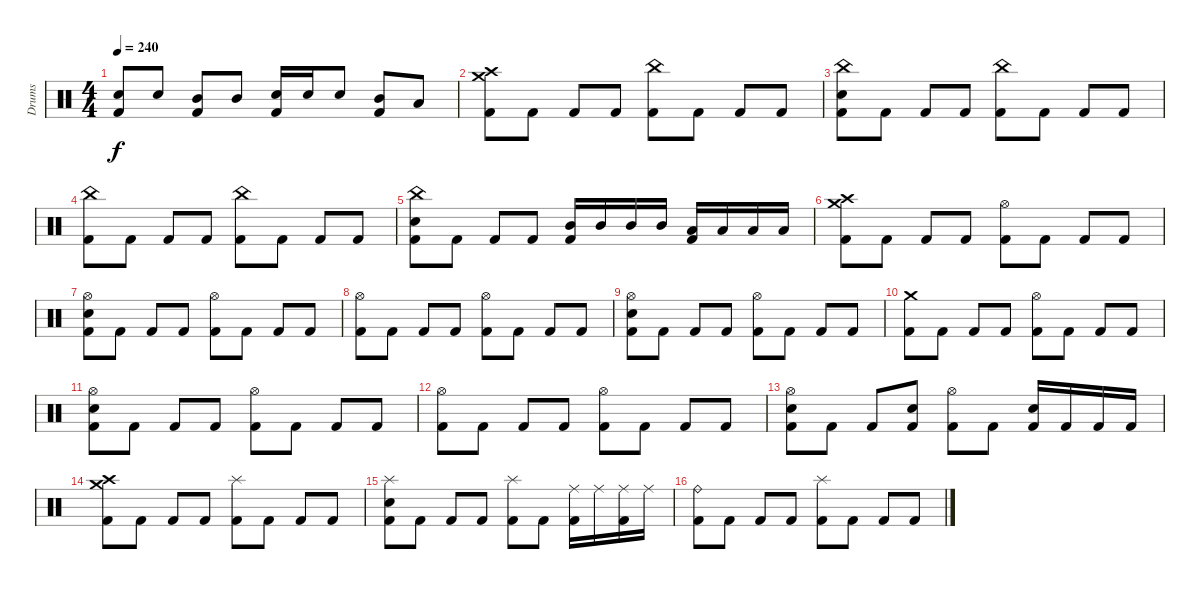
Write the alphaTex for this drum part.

\track ("Drums" "Drums") {instrument percussion}
\staff
\articulation defaults
\ts (4 4)
\tempo 240
\clef neutral
\ks c
("Electric Snare (hit)" "Kick (hit) 2").8{dy f} "Electric Snare (hit)".8 ("Mid Tom (hit)" "Kick (hit) 2").8 "Mid Tom (hit)".8 ("Electric Snare (hit)" "Kick (hit) 2").16 "Electric Snare (hit)".16 "Electric Snare (hit)".8 ("Mid Tom (hit)" "Kick (hit) 2").8 "Low Tom (hit)".8 |
("Crash medium (hit)" "Crash high (hit)" "Kick (hit) 2").8 "Kick (hit) 2".8 "Kick (hit) 2".8 "Kick (hit) 2".8 ("China (hit)" "Kick (hit) 2").8 "Kick (hit) 2".8 "Kick (hit) 2".8 "Kick (hit) 2".8 |
("China (hit)" "Electric Snare (hit)" "Kick (hit) 2").8 "Kick (hit) 2".8 "Kick (hit) 2".8 "Kick (hit) 2".8 ("China (hit)" "Kick (hit) 2").8 "Kick (hit) 2".8 "Kick (hit) 2".8 "Kick (hit) 2".8 |
("China (hit)" "Kick (hit) 2").8 "Kick (hit) 2".8 "Kick (hit) 2".8 "Kick (hit) 2".8 ("China (hit)" "Kick (hit) 2").8 "Kick (hit) 2".8 "Kick (hit) 2".8 "Kick (hit) 2".8 |
("China (hit)" "Electric Snare (hit)" "Kick (hit) 2").8 "Kick (hit) 2".8 "Kick (hit) 2".8 "Kick (hit) 2".8 ("Mid Tom (hit)" "Kick (hit) 2").16 "Mid Tom (hit)".16 "Mid Tom (hit)".16 "Mid Tom (hit)".16 ("Low Tom (hit)" "Kick (hit) 2").16 "Low Tom (hit)".16 "Low Tom (hit)".16 "Low Tom (hit)".16 |
("Crash medium (hit)" "Crash high (hit)" "Kick (hit) 2").8 "Kick (hit) 2".8 "Kick (hit) 2".8 "Kick (hit) 2".8 ("Hi-Hat (open)" "Kick (hit) 2").8 "Kick (hit) 2".8 "Kick (hit) 2".8 "Kick (hit) 2".8 |
("Hi-Hat (open)" "Electric Snare (hit)" "Kick (hit) 2").8 "Kick (hit) 2".8 "Kick (hit) 2".8 "Kick (hit) 2".8 ("Hi-Hat (open)" "Kick (hit) 2").8 "Kick (hit) 2".8 "Kick (hit) 2".8 "Kick (hit) 2".8 |
("Hi-Hat (open)" "Kick (hit) 2").8 "Kick (hit) 2".8 "Kick (hit) 2".8 "Kick (hit) 2".8 ("Hi-Hat (open)" "Kick (hit) 2").8 "Kick (hit) 2".8 "Kick (hit) 2".8 "Kick (hit) 2".8 |
("Hi-Hat (open)" "Electric Snare (hit)" "Kick (hit) 2").8 "Kick (hit) 2".8 "Kick (hit) 2".8 "Kick (hit) 2".8 ("Hi-Hat (open)" "Kick (hit) 2").8 "Kick (hit) 2".8 "Kick (hit) 2".8 "Kick (hit) 2".8 |
("Crash medium (hit)" "Kick (hit) 2").8 "Kick (hit) 2".8 "Kick (hit) 2".8 "Kick (hit) 2".8 ("Hi-Hat (open)" "Kick (hit) 2").8 "Kick (hit) 2".8 "Kick (hit) 2".8 "Kick (hit) 2".8 |
("Hi-Hat (open)" "Electric Snare (hit)" "Kick (hit) 2").8 "Kick (hit) 2".8 "Kick (hit) 2".8 "Kick (hit) 2".8 ("Hi-Hat (open)" "Kick (hit) 2").8 "Kick (hit) 2".8 "Kick (hit) 2".8 "Kick (hit) 2".8 |
("Hi-Hat (open)" "Kick (hit) 2").8 "Kick (hit) 2".8 "Kick (hit) 2".8 "Kick (hit) 2".8 ("Hi-Hat (open)" "Kick (hit) 2").8 "Kick (hit) 2".8 "Kick (hit) 2".8 "Kick (hit) 2".8 |
("Hi-Hat (open)" "Electric Snare (hit)" "Kick (hit) 2").8 "Kick (hit) 2".8 "Kick (hit) 2".8 ("Electric Snare (hit)" "Kick (hit) 2").8 ("Hi-Hat (open)" "Kick (hit) 2").8 "Kick (hit) 2".8 ("Electric Snare (hit)" "Kick (hit) 2").16 "Kick (hit) 2".16 "Kick (hit) 2".16 "Kick (hit) 2".16 |
("Crash medium (hit)" "Crash high (hit)" "Kick (hit) 2").8 "Kick (hit) 2".8 "Kick (hit) 2".8 "Kick (hit) 2".8 ("Splash (hit)" "Kick (hit) 2").8 "Kick (hit) 2".8 "Kick (hit) 2".8 "Kick (hit) 2".8 |
("Splash (hit)" "Electric Snare (hit)" "Kick (hit) 2").8 "Kick (hit) 2".8 "Kick (hit) 2".8 "Kick (hit) 2".8 ("Splash (hit)" "Kick (hit) 2").8 "Kick (hit) 2".8 ("Ride (middle)" "Kick (hit) 2").16 "Ride (middle)".16 ("Ride (middle)" "Kick (hit) 2").16 "Ride (middle)".16 |
("Ride (bell)" "Kick (hit) 2").8 "Kick (hit) 2".8 "Kick (hit) 2".8 "Kick (hit) 2".8 ("Splash (hit)" "Kick (hit) 2").8 "Kick (hit) 2".8 "Kick (hit) 2".8 "Kick (hit) 2".8
